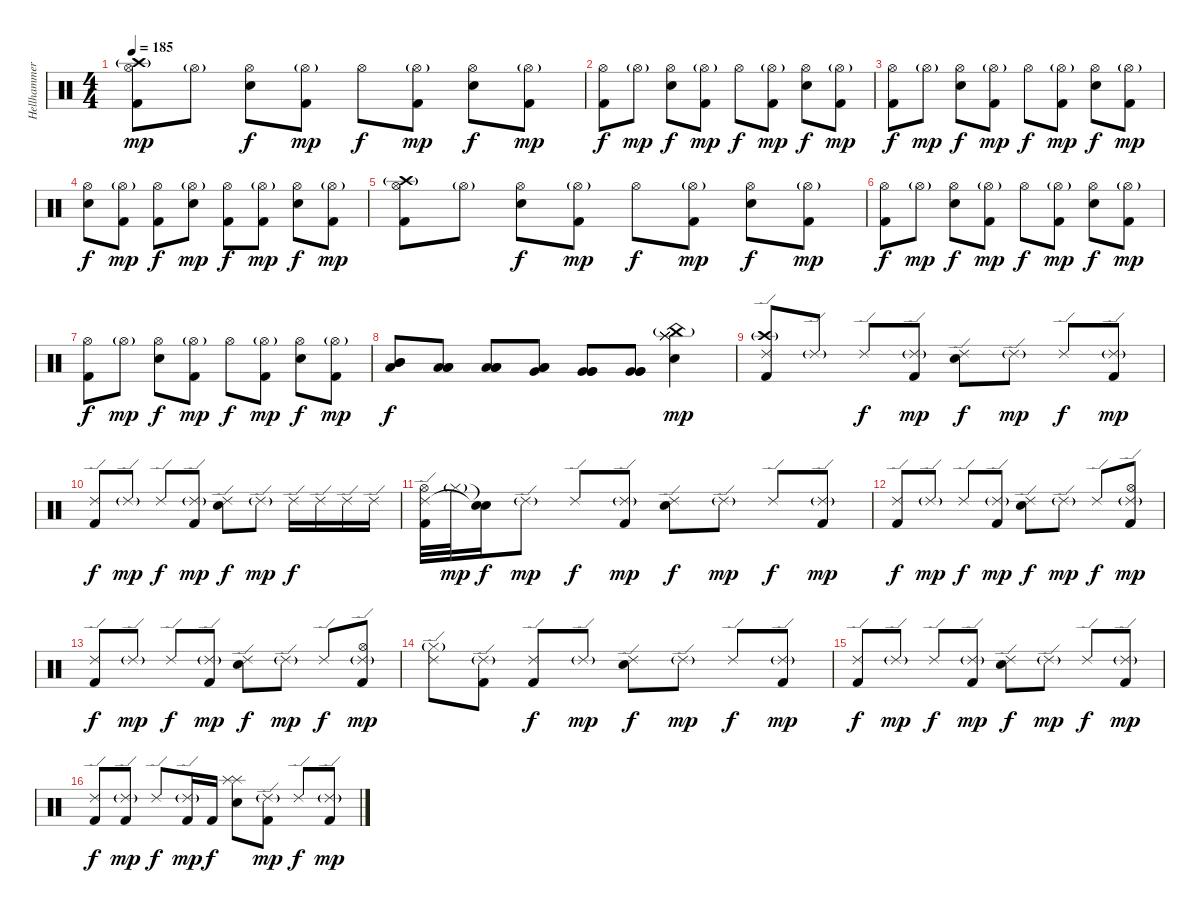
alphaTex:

\track ("Hellhammer" "Hellhammer") {instrument percussion}
\staff {score}
\articulation defaults
\ts (4 4)
\tempo 185
\clef neutral
\ks c
("Kick (hit) 2" "Hi-Hat (open)" "Crash high (hit)"{g}).8{dy mp} "Hi-Hat (open)"{g}.8 ("Electric Snare (hit)" "Hi-Hat (open)").8{dy f} ("Kick (hit) 2" "Hi-Hat (open)"{g}).8{dy mp} "Hi-Hat (open)".8{dy f} ("Kick (hit) 2" "Hi-Hat (open)"{g}).8{dy mp} ("Electric Snare (hit)" "Hi-Hat (open)").8{dy f} ("Kick (hit) 2" "Hi-Hat (open)"{g}).8{dy mp} |
("Kick (hit) 2" "Hi-Hat (open)").8{dy f} "Hi-Hat (open)"{g}.8{dy mp} ("Electric Snare (hit)" "Hi-Hat (open)").8{dy f} ("Kick (hit) 2" "Hi-Hat (open)"{g}).8{dy mp} "Hi-Hat (open)".8{dy f} ("Kick (hit) 2" "Hi-Hat (open)"{g}).8{dy mp} ("Electric Snare (hit)" "Hi-Hat (open)").8{dy f} ("Kick (hit) 2" "Hi-Hat (open)"{g}).8{dy mp} |
("Kick (hit) 2" "Hi-Hat (open)").8{dy f} "Hi-Hat (open)"{g}.8{dy mp} ("Electric Snare (hit)" "Hi-Hat (open)").8{dy f} ("Kick (hit) 2" "Hi-Hat (open)"{g}).8{dy mp} "Hi-Hat (open)".8{dy f} ("Kick (hit) 2" "Hi-Hat (open)"{g}).8{dy mp} ("Electric Snare (hit)" "Hi-Hat (open)").8{dy f} ("Kick (hit) 2" "Hi-Hat (open)"{g}).8{dy mp} |
("Electric Snare (hit)" "Hi-Hat (open)").8{dy f} ("Kick (hit) 2" "Hi-Hat (open)"{g}).8{dy mp} ("Kick (hit) 2" "Hi-Hat (open)").8{dy f} ("Electric Snare (hit)" "Hi-Hat (open)"{g}).8{dy mp} ("Kick (hit) 2" "Hi-Hat (open)").8{dy f} ("Kick (hit) 2" "Hi-Hat (open)"{g}).8{dy mp} ("Electric Snare (hit)" "Hi-Hat (open)").8{dy f} ("Kick (hit) 2" "Hi-Hat (open)"{g}).8{dy mp} |
("Kick (hit) 2" "Hi-Hat (open)" "Crash high (hit)"{g}).8 "Hi-Hat (open)"{g}.8 ("Electric Snare (hit)" "Hi-Hat (open)").8{dy f} ("Kick (hit) 2" "Hi-Hat (open)"{g}).8{dy mp} "Hi-Hat (open)".8{dy f} ("Kick (hit) 2" "Hi-Hat (open)"{g}).8{dy mp} ("Electric Snare (hit)" "Hi-Hat (open)").8{dy f} ("Kick (hit) 2" "Hi-Hat (open)"{g}).8{dy mp} |
("Kick (hit) 2" "Hi-Hat (open)").8{dy f} "Hi-Hat (open)"{g}.8{dy mp} ("Electric Snare (hit)" "Hi-Hat (open)").8{dy f} ("Kick (hit) 2" "Hi-Hat (open)"{g}).8{dy mp} "Hi-Hat (open)".8{dy f} ("Kick (hit) 2" "Hi-Hat (open)"{g}).8{dy mp} ("Electric Snare (hit)" "Hi-Hat (open)").8{dy f} ("Kick (hit) 2" "Hi-Hat (open)"{g}).8{dy mp} |
("Kick (hit) 2" "Hi-Hat (open)").8{dy f} "Hi-Hat (open)"{g}.8{dy mp} ("Electric Snare (hit)" "Hi-Hat (open)").8{dy f} ("Kick (hit) 2" "Hi-Hat (open)"{g}).8{dy mp} "Hi-Hat (open)".8{dy f} ("Kick (hit) 2" "Hi-Hat (open)"{g}).8{dy mp} ("Electric Snare (hit)" "Hi-Hat (open)").8{dy f} ("Kick (hit) 2" "Hi-Hat (open)"{g}).8{dy mp} |
("Mid Tom (hit)" "Mid Tom (hit)" "Low Tom (hit)").8{dy f} ("Low Tom (hit)" "Low Tom (hit)" "Low Tom (hit)").8 ("Low Tom (hit)" "Low Tom (hit)" "Low Tom (hit)").8 ("Low Tom (hit)" "Low Tom (hit)" "Very Low Tom (hit)").8 ("Very Low Tom (hit)" "Very Low Tom (hit)" "Very Low Tom (hit)").8 ("Very Low Tom (hit)" "Very Low Tom (hit)" "Very Low Tom (hit)").8 ("Electric Snare (hit)" "Splash (hit)" "Splash (hit)" "China (hit)"{g} "Splash (hit)").4{dy mp} |
("Kick (hit) 2" "Ride (edge) 2" "Crash high (hit)"{g}).8 "Ride (edge) 2"{g}.8 "Ride (edge) 2".8{dy f} ("Kick (hit) 2" "Ride (edge) 2"{g}).8{dy mp} ("Electric Snare (hit)" "Ride (edge) 2").8{dy f} "Ride (edge) 2"{g}.8{dy mp} "Ride (edge) 2".8{dy f} ("Kick (hit) 2" "Ride (edge) 2"{g}).8{dy mp} |
("Kick (hit) 2" "Ride (edge) 2").8{dy f} "Ride (edge) 2"{g}.8{dy mp} "Ride (edge) 2".8{dy f} ("Kick (hit) 2" "Ride (edge) 2"{g}).8{dy mp} ("Electric Snare (hit)" "Ride (edge) 2").8{dy f} "Ride (edge) 2"{g}.8{dy mp} "Ride (edge) 2".16{dy f} "Ride (edge) 2".16 "Ride (edge) 2".16 "Ride (edge) 2".16 |
("Kick (hit) 2" "Ride (edge) 2" "Hi-Hat (open)").32 "Hi-Hat (closed)"{g}.32{dy mp} ("Snare (hit)"{t} "Snare (hit)"{t}).16{dy f} "Ride (edge) 2"{g}.8{dy mp} "Ride (edge) 2".8{dy f} ("Kick (hit) 2" "Ride (edge) 2"{g}).8{dy mp} ("Electric Snare (hit)" "Ride (edge) 2").8{dy f} "Ride (edge) 2"{g}.8{dy mp} "Ride (edge) 2".8{dy f} ("Kick (hit) 2" "Ride (edge) 2"{g}).8{dy mp} |
("Kick (hit) 2" "Ride (edge) 2").8{dy f} "Ride (edge) 2"{g}.8{dy mp} "Ride (edge) 2".8{dy f} ("Kick (hit) 2" "Ride (edge) 2"{g}).8{dy mp} ("Electric Snare (hit)" "Ride (edge) 2").8{dy f} "Ride (edge) 2"{g}.8{dy mp} "Ride (edge) 2".8{dy f} ("Kick (hit) 2" "Ride (edge) 2"{g} "Hi-Hat (open)").8{dy mp} |
("Kick (hit) 2" "Ride (edge) 2").8{dy f} "Ride (edge) 2"{g}.8{dy mp} "Ride (edge) 2".8{dy f} ("Kick (hit) 2" "Ride (edge) 2"{g}).8{dy mp} ("Electric Snare (hit)" "Ride (edge) 2").8{dy f} "Ride (edge) 2"{g}.8{dy mp} "Ride (edge) 2".8{dy f} ("Kick (hit) 2" "Ride (edge) 2"{g} "Hi-Hat (open)").8{dy mp} |
("Ride (edge) 2" "Hi-Hat (closed)"{g}).8 ("Kick (hit) 2" "Ride (edge) 2"{g}).8 ("Kick (hit) 2" "Ride (edge) 2").8{dy f} "Ride (edge) 2"{g}.8{dy mp} ("Electric Snare (hit)" "Ride (edge) 2").8{dy f} "Ride (edge) 2"{g}.8{dy mp} "Ride (edge) 2".8{dy f} ("Kick (hit) 2" "Ride (edge) 2"{g}).8{dy mp} |
("Kick (hit) 2" "Ride (edge) 2").8{dy f} "Ride (edge) 2"{g}.8{dy mp} "Ride (edge) 2".8{dy f} ("Kick (hit) 2" "Ride (edge) 2"{g}).8{dy mp} ("Electric Snare (hit)" "Ride (edge) 2").8{dy f} "Ride (edge) 2"{g}.8{dy mp} "Ride (edge) 2".8{dy f} ("Kick (hit) 2" "Ride (edge) 2"{g}).8{dy mp} |
("Kick (hit) 2" "Ride (edge) 2").8{dy f} ("Kick (hit) 2" "Ride (edge) 2"{g}).8{dy mp} "Ride (edge) 2".8{dy f} ("Kick (hit) 2" "Ride (edge) 2"{g}).16{dy mp} "Kick (hit) 2".16{dy f} ("Electric Snare (hit)" "Splash (hit)" "Splash (hit)").8 ("Kick (hit) 2" "Ride (edge) 2"{g}).8{dy mp} "Ride (edge) 2".8{dy f} ("Kick (hit) 2" "Ride (edge) 2"{g}).8{dy mp}
